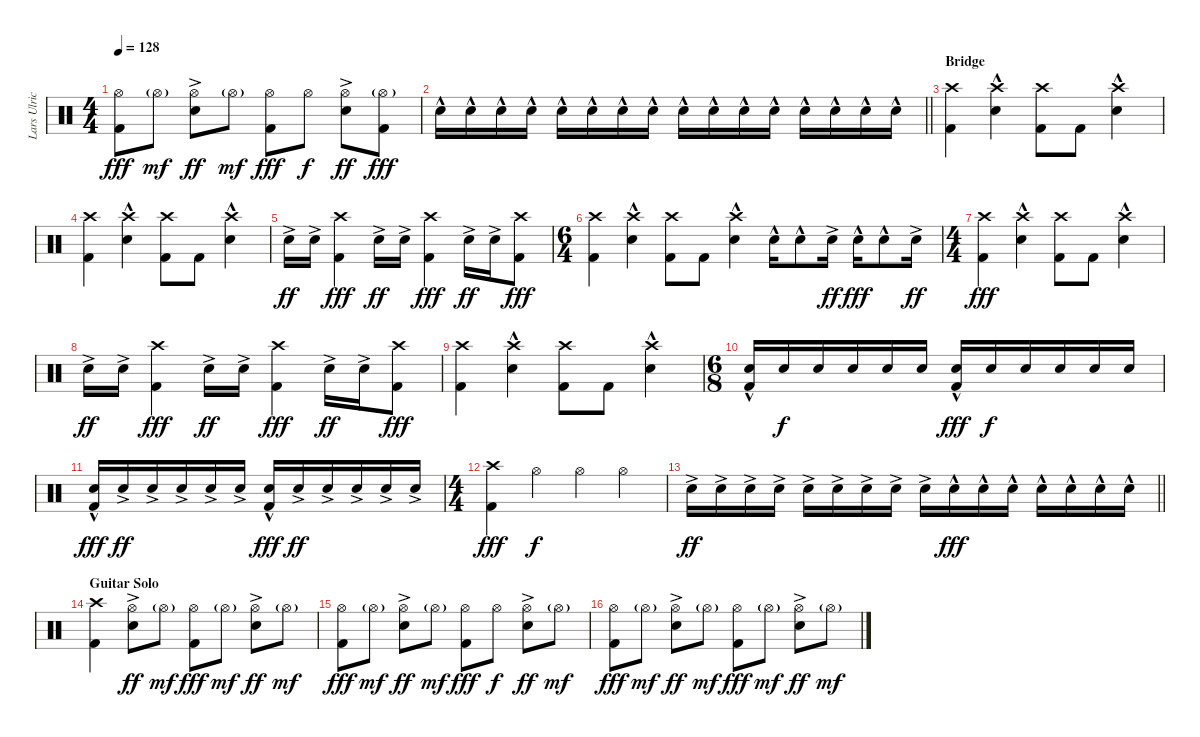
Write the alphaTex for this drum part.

\track ("Lars Ulrich (Drums)" "Lars Ulric") {instrument percussion}
\staff {score}
\articulation defaults
\ts (4 4)
\tempo 128
\clef neutral
\ks c
("Hi-Hat (open)" "Kick (hit) 2").8{dy fff} "Hi-Hat (open)"{g}.8{dy mf} ("Hi-Hat (open)"{ac} "Electric Snare (hit)"{ac}).8{dy ff} "Hi-Hat (open)"{g}.8{dy mf} ("Hi-Hat (open)" "Kick (hit) 2").8{dy fff} "Hi-Hat (open)".8{dy f} ("Hi-Hat (open)"{ac} "Electric Snare (hit)"{ac}).8{dy ff} ("Hi-Hat (open)"{g} "Kick (hit) 2").8{dy fff} |
\barLineRight lightlight "Electric Snare (hit)"{hac}.16 "Electric Snare (hit)"{hac}.16 "Electric Snare (hit)"{hac}.16 "Electric Snare (hit)"{hac}.16 "Electric Snare (hit)"{hac}.16 "Electric Snare (hit)"{hac}.16 "Electric Snare (hit)"{hac}.16 "Electric Snare (hit)"{hac}.16 "Electric Snare (hit)"{hac}.16 "Electric Snare (hit)"{hac}.16 "Electric Snare (hit)"{hac}.16 "Electric Snare (hit)"{hac}.16 "Electric Snare (hit)"{hac}.16 "Electric Snare (hit)"{hac}.16 "Electric Snare (hit)"{hac}.16 "Electric Snare (hit)"{hac}.16
|
\section ("" "Bridge")
("Crash high (hit)" "Kick (hit) 2").4 ("Crash high (hit)" "Electric Snare (hit)"{hac}).4 ("Crash high (hit)" "Kick (hit) 2").8 "Kick (hit) 2".8 ("Crash high (hit)" "Electric Snare (hit)"{hac}).4 |
("Crash high (hit)" "Kick (hit) 2").4 ("Crash high (hit)" "Electric Snare (hit)"{hac}).4 ("Crash high (hit)" "Kick (hit) 2").8 "Kick (hit) 2".8 ("Crash high (hit)" "Electric Snare (hit)"{hac}).4 |
"Electric Snare (hit)"{ac}.16{dy ff} "Electric Snare (hit)"{ac}.16 ("Crash high (hit)" "Kick (hit) 2").4{dy fff} "Electric Snare (hit)"{ac}.16{dy ff} "Electric Snare (hit)"{ac}.16 ("Crash high (hit)" "Kick (hit) 2").4{dy fff} "Electric Snare (hit)"{ac}.16{dy ff} "Electric Snare (hit)"{ac}.16 ("Crash high (hit)" "Kick (hit) 2").8{dy fff} |
\ts (6 4)
("Crash high (hit)" "Kick (hit) 2").4 ("Crash high (hit)" "Electric Snare (hit)"{hac}).4 ("Crash high (hit)" "Kick (hit) 2").8 "Kick (hit) 2".8 ("Crash high (hit)" "Electric Snare (hit)"{hac}).4 "Electric Snare (hit)"{hac}.16 "Electric Snare (hit)"{hac}.8 "Electric Snare (hit)"{ac}.16{dy ff} "Electric Snare (hit)"{hac}.16{dy fff} "Electric Snare (hit)"{hac}.8 "Electric Snare (hit)"{ac}.16{dy ff} |
\ts (4 4)
("Crash high (hit)" "Kick (hit) 2").4{dy fff} ("Crash high (hit)" "Electric Snare (hit)"{hac}).4 ("Crash high (hit)" "Kick (hit) 2").8 "Kick (hit) 2".8 ("Crash high (hit)" "Electric Snare (hit)"{hac}).4 |
"Electric Snare (hit)"{ac}.16{dy ff} "Electric Snare (hit)"{ac}.16 ("Crash high (hit)" "Kick (hit) 2").4{dy fff} "Electric Snare (hit)"{ac}.16{dy ff} "Electric Snare (hit)"{ac}.16 ("Crash high (hit)" "Kick (hit) 2").4{dy fff} "Electric Snare (hit)"{ac}.16{dy ff} "Electric Snare (hit)"{ac}.16 ("Crash high (hit)" "Kick (hit) 2").8{dy fff} |
("Crash high (hit)" "Kick (hit) 2").4 ("Crash high (hit)" "Electric Snare (hit)"{hac}).4 ("Crash high (hit)" "Kick (hit) 2").8 "Kick (hit) 2".8 ("Crash high (hit)" "Electric Snare (hit)"{hac}).4 |
\ts (6 8)
("Electric Snare (hit)"{hac} "Kick (hit) 2").16 "Electric Snare (hit)".16{dy f} "Electric Snare (hit)".16 "Electric Snare (hit)".16 "Electric Snare (hit)".16 "Electric Snare (hit)".16 ("Electric Snare (hit)"{hac} "Kick (hit) 2").16{dy fff} "Electric Snare (hit)".16{dy f} "Electric Snare (hit)".16 "Electric Snare (hit)".16 "Electric Snare (hit)".16 "Electric Snare (hit)".16 |
("Electric Snare (hit)"{hac} "Kick (hit) 2").16{dy fff} "Electric Snare (hit)"{ac}.16{dy ff} "Electric Snare (hit)"{ac}.16 "Electric Snare (hit)"{ac}.16 "Electric Snare (hit)"{ac}.16 "Electric Snare (hit)"{ac}.16 ("Electric Snare (hit)"{hac} "Kick (hit) 2").16{dy fff} "Electric Snare (hit)"{ac}.16{dy ff} "Electric Snare (hit)"{ac}.16 "Electric Snare (hit)"{ac}.16 "Electric Snare (hit)"{ac}.16 "Electric Snare (hit)"{ac}.16 |
\ts (4 4)
("Crash high (hit)" "Kick (hit) 2").4{dy fff} "Hi-Hat (open)".4{dy f} "Hi-Hat (open)".4 "Hi-Hat (open)".4 |
\barLineRight lightlight "Electric Snare (hit)"{ac}.16{dy ff} "Electric Snare (hit)"{ac}.16 "Electric Snare (hit)"{ac}.16 "Electric Snare (hit)"{ac}.16 "Electric Snare (hit)"{ac}.16 "Electric Snare (hit)"{ac}.16 "Electric Snare (hit)"{ac}.16 "Electric Snare (hit)"{ac}.16 "Electric Snare (hit)"{ac}.16 "Electric Snare (hit)"{hac}.16{dy fff} "Electric Snare (hit)"{hac}.16 "Electric Snare (hit)"{hac}.16 "Electric Snare (hit)"{hac}.16 "Electric Snare (hit)"{hac}.16 "Electric Snare (hit)"{hac}.16 "Electric Snare (hit)"{hac}.16
|
\section ("" "Guitar Solo")
("Crash high (hit)" "Kick (hit) 2").4 ("Hi-Hat (open)"{ac} "Electric Snare (hit)"{ac}).8{dy ff} "Hi-Hat (open)"{g}.8{dy mf} ("Hi-Hat (open)" "Kick (hit) 2").8{dy fff} "Hi-Hat (open)"{g}.8{dy mf} ("Hi-Hat (open)"{ac} "Electric Snare (hit)"{ac}).8{dy ff} "Hi-Hat (open)"{g}.8{dy mf} |
("Hi-Hat (open)" "Kick (hit) 2").8{dy fff} "Hi-Hat (open)"{g}.8{dy mf} ("Hi-Hat (open)"{ac} "Electric Snare (hit)"{ac}).8{dy ff} "Hi-Hat (open)"{g}.8{dy mf} ("Hi-Hat (open)" "Kick (hit) 2").8{dy fff} "Hi-Hat (open)".8{dy f} ("Hi-Hat (open)"{ac} "Electric Snare (hit)"{ac}).8{dy ff} "Hi-Hat (open)"{g}.8{dy mf} |
("Hi-Hat (open)" "Kick (hit) 2").8{dy fff} "Hi-Hat (open)"{g}.8{dy mf} ("Hi-Hat (open)"{ac} "Electric Snare (hit)"{ac}).8{dy ff} "Hi-Hat (open)"{g}.8{dy mf} ("Hi-Hat (open)" "Kick (hit) 2").8{dy fff} "Hi-Hat (open)"{g}.8{dy mf} ("Hi-Hat (open)"{ac} "Electric Snare (hit)"{ac}).8{dy ff} "Hi-Hat (open)"{g}.8{dy mf}
